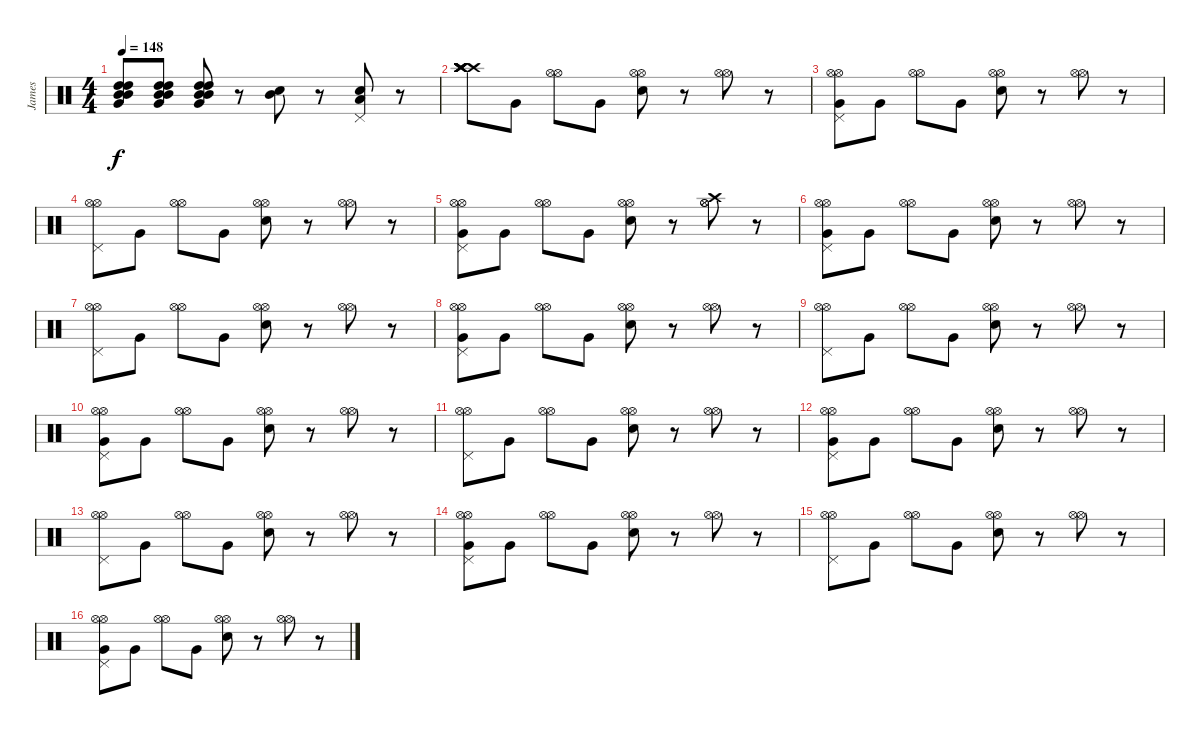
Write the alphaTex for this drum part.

\track ("James" "James") {instrument percussion}
\staff {score}
\articulation defaults
\ts (4 4)
\tempo 148
\clef neutral
\ks c
("Mid Tom (hit)" "Mid Tom (hit)" "High Tom (hit)" "Very Low Tom (hit)" "High Tom (hit)").8{dy f} ("Mid Tom (hit)" "Mid Tom (hit)" "High Tom (hit)" "Very Low Tom (hit)" "High Tom (hit)").8 ("Mid Tom (hit)" "Mid Tom (hit)" "High Tom (hit)" "Very Low Tom (hit)" "High Tom (hit)").8 r.8 ("Mid Tom (hit)" "Electric Snare (hit)").8 r.8 ("Low Floor Tom (hit)" "Pedal Hi-Hat (hit)" "Electric Snare (hit)").8 r.8 |
("Crash high (hit)" "Crash high (hit)" "Crash high (hit)" "Crash high (hit)" "Crash high (hit)" "Crash high (hit)").8 "Very Low Tom (hit)".8 ("Hi-Hat (open)" "Hi-Hat (open)").8 "Very Low Tom (hit)".8 ("Hi-Hat (open)" "Electric Snare (hit)" "Hi-Hat (open)").8 r.8 ("Hi-Hat (open)" "Hi-Hat (open)").8 r.8 |
("Hi-Hat (open)" "Pedal Hi-Hat (hit)" "Very Low Tom (hit)" "Hi-Hat (open)").8 "Very Low Tom (hit)".8 ("Hi-Hat (open)" "Hi-Hat (open)").8 "Very Low Tom (hit)".8 ("Hi-Hat (open)" "Electric Snare (hit)" "Hi-Hat (open)").8 r.8 ("Hi-Hat (open)" "Hi-Hat (open)").8 r.8 |
("Hi-Hat (open)" "Pedal Hi-Hat (hit)" "Hi-Hat (open)").8 "Very Low Tom (hit)".8 ("Hi-Hat (open)" "Hi-Hat (open)").8 "Very Low Tom (hit)".8 ("Hi-Hat (open)" "Electric Snare (hit)" "Hi-Hat (open)").8 r.8 ("Hi-Hat (open)" "Hi-Hat (open)").8 r.8 |
("Hi-Hat (open)" "Pedal Hi-Hat (hit)" "Very Low Tom (hit)" "Hi-Hat (open)").8 "Very Low Tom (hit)".8 ("Hi-Hat (open)" "Hi-Hat (open)").8 "Very Low Tom (hit)".8 ("Hi-Hat (open)" "Electric Snare (hit)" "Hi-Hat (open)").8 r.8 ("Hi-Hat (open)" "Crash high (hit)" "Hi-Hat (open)").8 r.8 |
("Hi-Hat (open)" "Pedal Hi-Hat (hit)" "Very Low Tom (hit)" "Hi-Hat (open)").8 "Very Low Tom (hit)".8 ("Hi-Hat (open)" "Hi-Hat (open)").8 "Very Low Tom (hit)".8 ("Hi-Hat (open)" "Electric Snare (hit)" "Hi-Hat (open)").8 r.8 ("Hi-Hat (open)" "Hi-Hat (open)").8 r.8 |
("Hi-Hat (open)" "Pedal Hi-Hat (hit)" "Hi-Hat (open)").8 "Very Low Tom (hit)".8 ("Hi-Hat (open)" "Hi-Hat (open)").8 "Very Low Tom (hit)".8 ("Hi-Hat (open)" "Electric Snare (hit)" "Hi-Hat (open)").8 r.8 ("Hi-Hat (open)" "Hi-Hat (open)").8 r.8 |
("Hi-Hat (open)" "Pedal Hi-Hat (hit)" "Very Low Tom (hit)" "Hi-Hat (open)").8 "Very Low Tom (hit)".8 ("Hi-Hat (open)" "Hi-Hat (open)").8 "Very Low Tom (hit)".8 ("Hi-Hat (open)" "Electric Snare (hit)" "Hi-Hat (open)").8 r.8 ("Hi-Hat (open)" "Hi-Hat (open)").8 r.8 |
("Hi-Hat (open)" "Pedal Hi-Hat (hit)" "Hi-Hat (open)").8 "Very Low Tom (hit)".8 ("Hi-Hat (open)" "Hi-Hat (open)").8 "Very Low Tom (hit)".8 ("Hi-Hat (open)" "Electric Snare (hit)" "Hi-Hat (open)").8 r.8 ("Hi-Hat (open)" "Hi-Hat (open)").8 r.8 |
("Hi-Hat (open)" "Pedal Hi-Hat (hit)" "Very Low Tom (hit)" "Hi-Hat (open)").8 "Very Low Tom (hit)".8 ("Hi-Hat (open)" "Hi-Hat (open)").8 "Very Low Tom (hit)".8 ("Hi-Hat (open)" "Electric Snare (hit)" "Hi-Hat (open)").8 r.8 ("Hi-Hat (open)" "Hi-Hat (open)").8 r.8 |
("Hi-Hat (open)" "Pedal Hi-Hat (hit)" "Hi-Hat (open)").8 "Very Low Tom (hit)".8 ("Hi-Hat (open)" "Hi-Hat (open)").8 "Very Low Tom (hit)".8 ("Hi-Hat (open)" "Electric Snare (hit)" "Hi-Hat (open)").8 r.8 ("Hi-Hat (open)" "Hi-Hat (open)").8 r.8 |
("Hi-Hat (open)" "Pedal Hi-Hat (hit)" "Very Low Tom (hit)" "Hi-Hat (open)").8 "Very Low Tom (hit)".8 ("Hi-Hat (open)" "Hi-Hat (open)").8 "Very Low Tom (hit)".8 ("Hi-Hat (open)" "Electric Snare (hit)" "Hi-Hat (open)").8 r.8 ("Hi-Hat (open)" "Hi-Hat (open)").8 r.8 |
("Hi-Hat (open)" "Pedal Hi-Hat (hit)" "Hi-Hat (open)").8 "Very Low Tom (hit)".8 ("Hi-Hat (open)" "Hi-Hat (open)").8 "Very Low Tom (hit)".8 ("Hi-Hat (open)" "Electric Snare (hit)" "Hi-Hat (open)").8 r.8 ("Hi-Hat (open)" "Hi-Hat (open)").8 r.8 |
("Hi-Hat (open)" "Pedal Hi-Hat (hit)" "Very Low Tom (hit)" "Hi-Hat (open)").8 "Very Low Tom (hit)".8 ("Hi-Hat (open)" "Hi-Hat (open)").8 "Very Low Tom (hit)".8 ("Hi-Hat (open)" "Electric Snare (hit)" "Hi-Hat (open)").8 r.8 ("Hi-Hat (open)" "Hi-Hat (open)").8 r.8 |
("Hi-Hat (open)" "Pedal Hi-Hat (hit)" "Hi-Hat (open)").8 "Very Low Tom (hit)".8 ("Hi-Hat (open)" "Hi-Hat (open)").8 "Very Low Tom (hit)".8 ("Hi-Hat (open)" "Electric Snare (hit)" "Hi-Hat (open)").8 r.8 ("Hi-Hat (open)" "Hi-Hat (open)").8 r.8 |
("Hi-Hat (open)" "Pedal Hi-Hat (hit)" "Very Low Tom (hit)" "Hi-Hat (open)").8 "Very Low Tom (hit)".8 ("Hi-Hat (open)" "Hi-Hat (open)").8 "Very Low Tom (hit)".8 ("Hi-Hat (open)" "Electric Snare (hit)" "Hi-Hat (open)").8 r.8 ("Hi-Hat (open)" "Hi-Hat (open)").8 r.8
